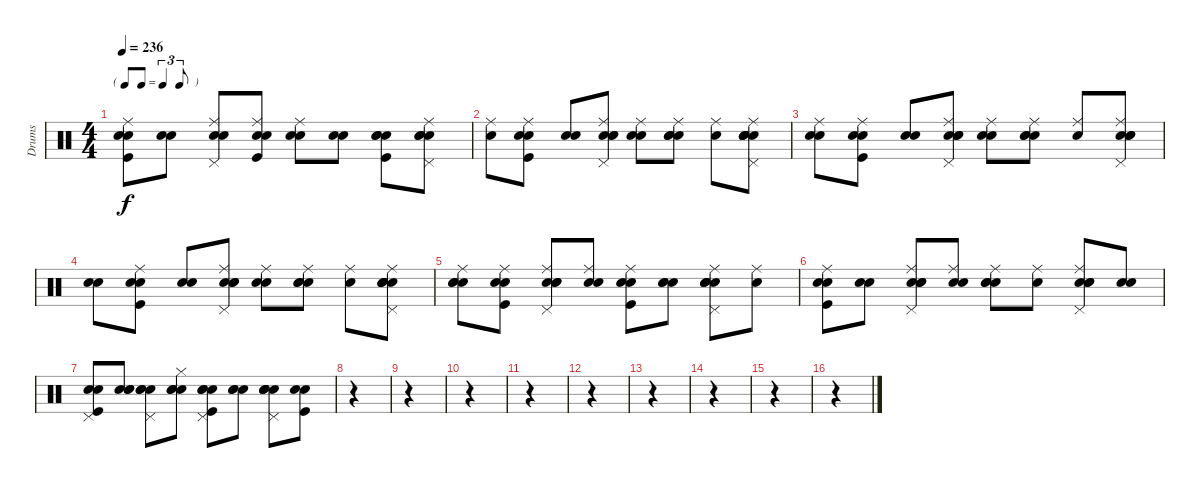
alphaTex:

\track ("Drums" "Drums") {instrument percussion}
\staff {score}
\articulation defaults
\ts (4 4)
\tf triplet8th
\tempo 236
\clef neutral
\ks c
("Snare (hit)" "Kick (hit)" "Electric Snare (hit)" "Ride (middle)").8{dy f} ("Snare (hit)" "Electric Snare (hit)").8 ("Snare (hit)" "Snare (hit) 2" "Ride (middle)" "Pedal Hi-Hat (hit)").8 ("Snare (hit)" "Kick (hit)" "Snare (hit) 2" "Ride (middle)").8 ("Snare (hit)" "Electric Snare (hit)" "Ride (middle)").8 ("Snare (hit)" "Snare (hit) 2").8 ("Snare (hit)" "Kick (hit)" "Electric Snare (hit)" "Hand Clap (hit)").8 ("Snare (hit)" "Electric Snare (hit)" "Ride (middle)" "Pedal Hi-Hat (hit)" "Hand Clap (hit)").8 |
("Snare (hit)" "Ride (middle)").8 ("Snare (hit)" "Kick (hit)" "Electric Snare (hit)" "Ride (middle)").8 ("Snare (hit)" "Electric Snare (hit)").8 ("Snare (hit)" "Snare (hit) 2" "Electric Snare (hit)" "Ride (middle)" "Pedal Hi-Hat (hit)").8 ("Snare (hit)" "Snare (hit) 2" "Ride (middle)").8 ("Snare (hit)" "Snare (hit) 2" "Electric Snare (hit)" "Ride (middle)").8 ("Snare (hit)" "Ride (middle)").8 ("Snare (hit)" "Snare (hit) 2" "Electric Snare (hit)" "Ride (middle)" "Pedal Hi-Hat (hit)" "Hand Clap (hit)").8 |
("Snare (hit)" "Snare (hit) 2" "Ride (middle)").8 ("Snare (hit)" "Kick (hit)" "Electric Snare (hit)" "Ride (middle)").8 ("Snare (hit)" "Electric Snare (hit)").8 ("Snare (hit)" "Snare (hit) 2" "Electric Snare (hit)" "Ride (middle)" "Pedal Hi-Hat (hit)").8 ("Snare (hit)" "Snare (hit) 2" "Ride (middle)").8 ("Snare (hit)" "Snare (hit) 2" "Electric Snare (hit)" "Ride (middle)").8 ("Snare (hit)" "Ride (middle)").8 ("Snare (hit)" "Snare (hit) 2" "Electric Snare (hit)" "Ride (middle)" "Pedal Hi-Hat (hit)").8 |
("Snare (hit)" "Snare (hit) 2").8 ("Snare (hit)" "Kick (hit)" "Electric Snare (hit)" "Ride (middle)").8 ("Snare (hit)" "Electric Snare (hit)").8 ("Snare (hit)" "Snare (hit) 2" "Electric Snare (hit)" "Ride (middle)" "Pedal Hi-Hat (hit)").8 ("Snare (hit)" "Snare (hit) 2" "Ride (middle)").8 ("Snare (hit)" "Snare (hit) 2" "Electric Snare (hit)" "Ride (middle)").8 ("Snare (hit)" "Ride (middle)").8 ("Snare (hit)" "Snare (hit) 2" "Electric Snare (hit)" "Ride (middle)" "Pedal Hi-Hat (hit)" "Hand Clap (hit)").8 |
("Snare (hit)" "Snare (hit) 2" "Ride (middle)" "Hand Clap (hit)").8 ("Snare (hit)" "Kick (hit)" "Electric Snare (hit)" "Ride (middle)").8 ("Snare (hit)" "Snare (hit) 2" "Electric Snare (hit)" "Ride (middle)" "Pedal Hi-Hat (hit)").8 ("Snare (hit)" "Snare (hit) 2" "Ride (middle)").8 ("Snare (hit)" "Kick (hit)" "Electric Snare (hit)" "Ride (middle)").8 ("Snare (hit)" "Electric Snare (hit)" "Hand Clap (hit)").8 ("Snare (hit)" "Snare (hit) 2" "Electric Snare (hit)" "Ride (middle)" "Pedal Hi-Hat (hit)" "Hand Clap (hit)").8 ("Snare (hit)" "Ride (middle)").8 |
("Snare (hit)" "Kick (hit)" "Electric Snare (hit)" "Ride (middle)").8 ("Snare (hit)" "Electric Snare (hit)").8 ("Snare (hit)" "Snare (hit) 2" "Electric Snare (hit)" "Ride (middle)" "Pedal Hi-Hat (hit)").8 ("Snare (hit)" "Snare (hit) 2" "Ride (middle)").8 ("Snare (hit)" "Snare (hit) 2" "Electric Snare (hit)" "Ride (middle)").8 ("Snare (hit)" "Ride (middle)").8 ("Snare (hit)" "Snare (hit) 2" "Electric Snare (hit)" "Ride (middle)" "Pedal Hi-Hat (hit)").8 ("Snare (hit)" "Snare (hit) 2").8 |
("Snare (hit)" "Kick (hit)" "Electric Snare (hit)" "Pedal Hi-Hat (hit)").8 ("Snare (hit)" "Electric Snare (hit)" "Hand Clap (hit)").8 ("Snare (hit)" "Snare (hit) 2" "Electric Snare (hit)" "Pedal Hi-Hat (hit)").8 ("Snare (hit)" "Snare (hit) 2" "Hi-Hat (closed)" "Hand Clap (hit)").8 ("Snare (hit)" "Kick (hit)" "Electric Snare (hit)" "Pedal Hi-Hat (hit)" "Hand Clap (hit)").8 ("Snare (hit)" "Electric Snare (hit)" "Hand Clap (hit)").8 ("Snare (hit)" "Snare (hit) 2" "Electric Snare (hit)" "Pedal Hi-Hat (hit)" "Hand Clap (hit)").8 ("Snare (hit)" "Kick (hit)" "Hand Clap (hit)").8 |
r.4 |
r.4 |
r.4 |
r.4 |
r.4 |
r.4 |
r.4 |
r.4 |
r.4
